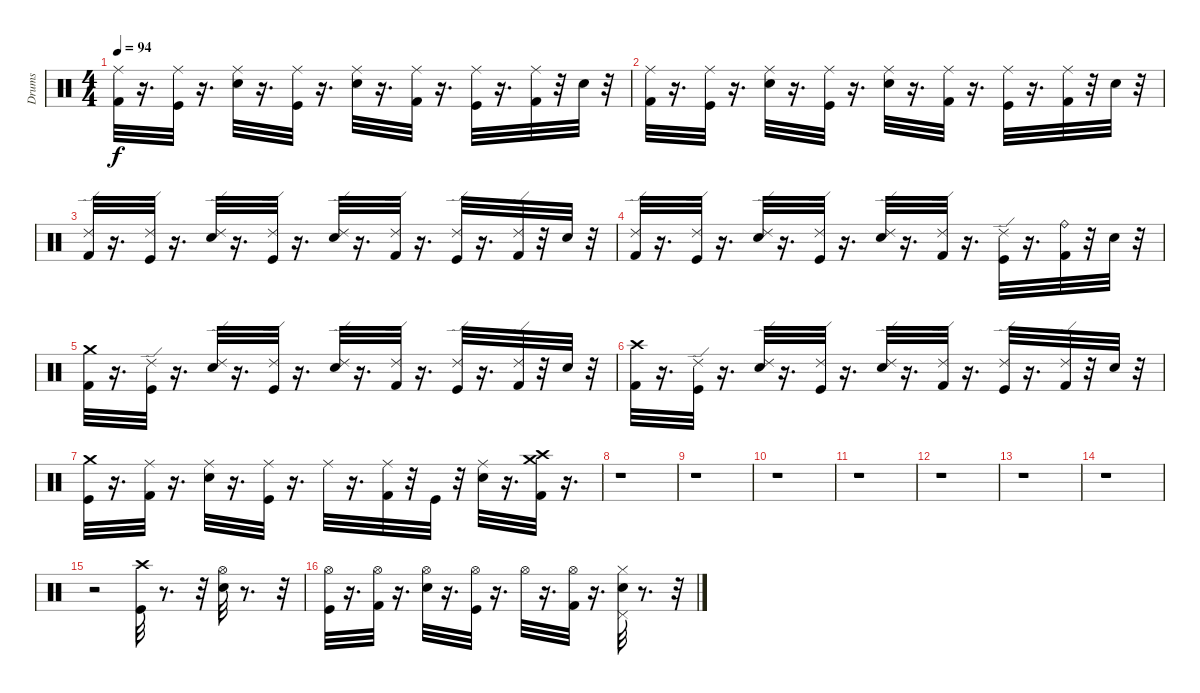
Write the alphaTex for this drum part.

\track ("Drums" "Drums") {instrument percussion}
\staff {score}
\articulation defaults
\ts (4 4)
\tempo 94
\clef neutral
\ks c
("Kick (hit) 2" "Ride (middle)").32{dy f} r.16{d} ("Kick (hit)" "Ride (middle)").32 r.16{d} ("Electric Snare (hit)" "Ride (middle)").32 r.16{d} ("Kick (hit)" "Ride (middle)").32 r.16{d} ("Electric Snare (hit)" "Ride (middle)").32 r.16{d} ("Kick (hit) 2" "Ride (middle)").32 r.16{d} ("Kick (hit)" "Ride (middle)").32 r.16{d} ("Kick (hit) 2" "Ride (middle)").32 r.32 "Electric Snare (hit)".32 r.32 |
("Kick (hit) 2" "Ride (middle)").32 r.16{d} ("Kick (hit)" "Ride (middle)").32 r.16{d} ("Electric Snare (hit)" "Ride (middle)").32 r.16{d} ("Kick (hit)" "Ride (middle)").32 r.16{d} ("Electric Snare (hit)" "Ride (middle)").32 r.16{d} ("Kick (hit) 2" "Ride (middle)").32 r.16{d} ("Kick (hit)" "Ride (middle)").32 r.16{d} ("Kick (hit) 2" "Ride (middle)").32 r.32 "Electric Snare (hit)".32 r.32 |
("Ride (edge) 2" "Kick (hit) 2").32 r.16{d} ("Ride (edge) 2" "Kick (hit)").32 r.16{d} ("Ride (edge) 2" "Electric Snare (hit)").32 r.16{d} ("Ride (edge) 2" "Kick (hit)").32 r.16{d} ("Ride (edge) 2" "Electric Snare (hit)").32 r.16{d} ("Ride (edge) 2" "Kick (hit) 2").32 r.16{d} ("Ride (edge) 2" "Kick (hit)").32 r.16{d} ("Ride (edge) 2" "Kick (hit) 2").32 r.32 "Electric Snare (hit)".32 r.32 |
("Ride (edge) 2" "Kick (hit) 2").32 r.16{d} ("Ride (edge) 2" "Kick (hit)").32 r.16{d} ("Ride (edge) 2" "Electric Snare (hit)").32 r.16{d} ("Ride (edge) 2" "Kick (hit)").32 r.16{d} ("Ride (edge) 2" "Electric Snare (hit)").32 r.16{d} ("Ride (edge) 2" "Kick (hit) 2").32 r.16{d} ("Ride (edge) 2" "Kick (hit)").32 r.16{d} ("Ride (bell)" "Kick (hit) 2").32 r.32 "Electric Snare (hit)".32 r.32 |
("Crash medium (hit)" "Kick (hit) 2").32 r.16{d} ("Ride (edge) 2" "Kick (hit)").32 r.16{d} ("Ride (edge) 2" "Electric Snare (hit)").32 r.16{d} ("Ride (edge) 2" "Kick (hit)").32 r.16{d} ("Ride (edge) 2" "Electric Snare (hit)").32 r.16{d} ("Ride (edge) 2" "Kick (hit) 2").32 r.16{d} ("Ride (edge) 2" "Kick (hit)").32 r.16{d} ("Ride (edge) 2" "Kick (hit) 2").32 r.32 "Electric Snare (hit)".32 r.32 |
("Crash high (hit)" "Kick (hit) 2").32 r.16{d} ("Ride (edge) 2" "Kick (hit)").32 r.16{d} ("Ride (edge) 2" "Electric Snare (hit)").32 r.16{d} ("Ride (edge) 2" "Kick (hit)").32 r.16{d} ("Ride (edge) 2" "Electric Snare (hit)").32 r.16{d} ("Ride (edge) 2" "Kick (hit) 2").32 r.16{d} ("Ride (edge) 2" "Kick (hit)").32 r.16{d} ("Ride (edge) 2" "Kick (hit) 2").32 r.32 "Electric Snare (hit)".32 r.32 |
("Crash medium (hit)" "Kick (hit)").32 r.16{d} ("Ride (middle)" "Kick (hit) 2").32 r.16{d} ("Ride (middle)" "Electric Snare (hit)").32 r.16{d} ("Ride (middle)" "Kick (hit)").32 r.16{d} "Ride (middle)".32 r.16{d} ("Ride (middle)" "Kick (hit) 2").32 r.32 "Kick (hit)".32 r.32 ("Ride (middle)" "Electric Snare (hit)").32 r.16{d} ("Crash medium (hit)" "Kick (hit) 2" "Crash high (hit)").32 r.16{d} |
r.1 |
r.1 |
r.1 |
r.1 |
r.1 |
r.1 |
r.1 |
r.2 ("Crash high (hit)" "Kick (hit)").32 r.8{d} r.32 ("Hi-Hat (open)" "Electric Snare (hit)").32 r.8{d} r.32 |
("Kick (hit)" "Hi-Hat (open)").32 r.16{d} ("Kick (hit) 2" "Hi-Hat (open)").32 r.16{d} ("Electric Snare (hit)" "Hi-Hat (open)").32 r.16{d} ("Kick (hit)" "Hi-Hat (open)").32 r.16{d} "Hi-Hat (open)".32 r.16{d} ("Kick (hit) 2" "Hi-Hat (open)").32 r.16{d} ("Pedal Hi-Hat (hit)" "Electric Snare (hit)" "Hi-Hat (closed)").32 r.8{d} r.32
